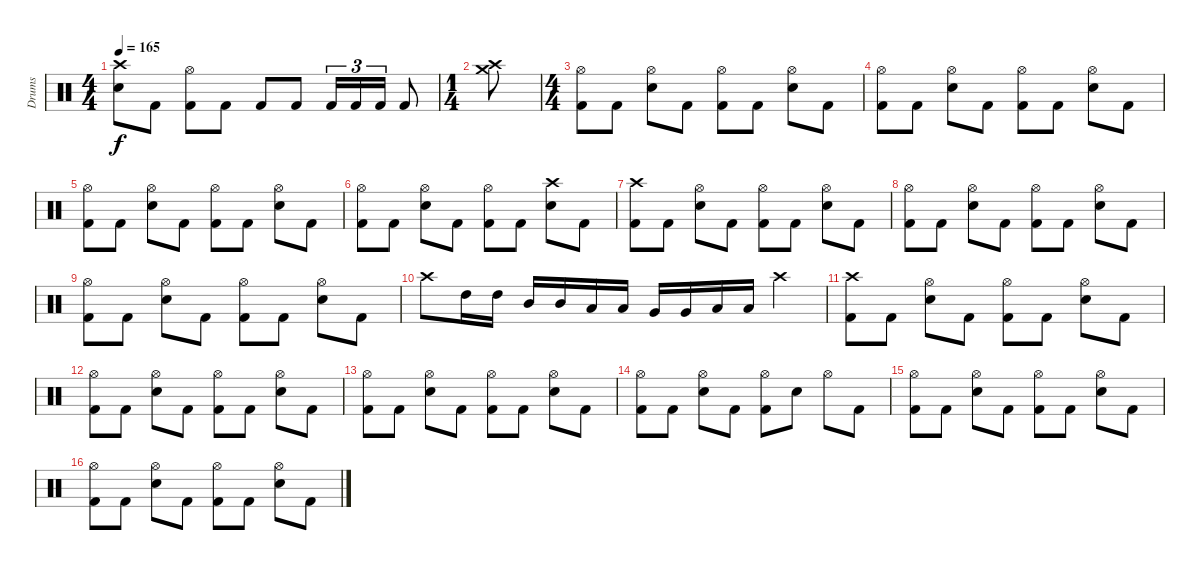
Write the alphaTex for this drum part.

\track ("Drums" "Drums") {instrument percussion}
\staff {score}
\articulation defaults
\ts (4 4)
\tempo 165
\clef neutral
\ks c
("Crash high (hit)" "Snare (hit) 2").8{dy f} "Kick (hit) 2".8 ("Hi-Hat (open)" "Kick (hit) 2").8 "Kick (hit) 2".8 "Kick (hit) 2".8 "Kick (hit) 2".8 "Kick (hit) 2".16{tu (3 2)} "Kick (hit) 2".16{tu (3 2)} "Kick (hit) 2".16{tu (3 2)} "Kick (hit) 2".8 |
\ts (1 4)
("Crash high (hit)" "Crash medium (hit)").8 |
\ts (4 4)
("Hi-Hat (open)" "Kick (hit) 2").8 "Kick (hit) 2".8 ("Hi-Hat (open)" "Snare (hit) 2").8 "Kick (hit) 2".8 ("Hi-Hat (open)" "Kick (hit) 2").8 "Kick (hit) 2".8 ("Hi-Hat (open)" "Snare (hit) 2").8 "Kick (hit) 2".8 |
("Hi-Hat (open)" "Kick (hit) 2").8 "Kick (hit) 2".8 ("Hi-Hat (open)" "Snare (hit) 2").8 "Kick (hit) 2".8 ("Hi-Hat (open)" "Kick (hit) 2").8 "Kick (hit) 2".8 ("Hi-Hat (open)" "Snare (hit) 2").8 "Kick (hit) 2".8 |
("Hi-Hat (open)" "Kick (hit) 2").8 "Kick (hit) 2".8 ("Hi-Hat (open)" "Snare (hit) 2").8 "Kick (hit) 2".8 ("Hi-Hat (open)" "Kick (hit) 2").8 "Kick (hit) 2".8 ("Hi-Hat (open)" "Snare (hit) 2").8 "Kick (hit) 2".8 |
("Hi-Hat (open)" "Kick (hit) 2").8 "Kick (hit) 2".8 ("Hi-Hat (open)" "Snare (hit) 2").8 "Kick (hit) 2".8 ("Hi-Hat (open)" "Kick (hit) 2").8 "Kick (hit) 2".8 ("Crash high (hit)" "Snare (hit) 2").8 "Kick (hit) 2".8 |
("Crash high (hit)" "Kick (hit) 2").8 "Kick (hit) 2".8 ("Hi-Hat (open)" "Snare (hit) 2").8 "Kick (hit) 2".8 ("Hi-Hat (open)" "Kick (hit) 2").8 "Kick (hit) 2".8 ("Hi-Hat (open)" "Snare (hit) 2").8 "Kick (hit) 2".8 |
("Hi-Hat (open)" "Kick (hit) 2").8 "Kick (hit) 2".8 ("Hi-Hat (open)" "Snare (hit) 2").8 "Kick (hit) 2".8 ("Hi-Hat (open)" "Kick (hit) 2").8 "Kick (hit) 2".8 ("Hi-Hat (open)" "Snare (hit) 2").8 "Kick (hit) 2".8 |
("Hi-Hat (open)" "Kick (hit) 2").8 "Kick (hit) 2".8 ("Hi-Hat (open)" "Snare (hit) 2").8 "Kick (hit) 2".8 ("Hi-Hat (open)" "Kick (hit) 2").8 "Kick (hit) 2".8 ("Hi-Hat (open)" "Snare (hit) 2").8 "Kick (hit) 2".8 |
"Crash high (hit)".8 "High Tom (hit)".16 "High Tom (hit)".16 "Mid Tom (hit)".16 "Mid Tom (hit)".16 "Low Tom (hit)".16 "Low Tom (hit)".16 "Very Low Tom (hit)".16 "Very Low Tom (hit)".16 "Low Floor Tom (hit)".16 "Low Floor Tom (hit)".16 "Crash high (hit)".4 |
("Crash high (hit)" "Kick (hit) 2").8 "Kick (hit) 2".8 ("Hi-Hat (open)" "Snare (hit) 2").8 "Kick (hit) 2".8 ("Hi-Hat (open)" "Kick (hit) 2").8 "Kick (hit) 2".8 ("Hi-Hat (open)" "Snare (hit) 2").8 "Kick (hit) 2".8 |
("Hi-Hat (open)" "Kick (hit) 2").8 "Kick (hit) 2".8 ("Hi-Hat (open)" "Snare (hit) 2").8 "Kick (hit) 2".8 ("Hi-Hat (open)" "Kick (hit) 2").8 "Kick (hit) 2".8 ("Hi-Hat (open)" "Snare (hit) 2").8 "Kick (hit) 2".8 |
("Hi-Hat (open)" "Kick (hit) 2").8 "Kick (hit) 2".8 ("Hi-Hat (open)" "Snare (hit) 2").8 "Kick (hit) 2".8 ("Hi-Hat (open)" "Kick (hit) 2").8 "Kick (hit) 2".8 ("Hi-Hat (open)" "Snare (hit) 2").8 "Kick (hit) 2".8 |
("Hi-Hat (open)" "Kick (hit) 2").8 "Kick (hit) 2".8 ("Hi-Hat (open)" "Snare (hit) 2").8 "Kick (hit) 2".8 ("Hi-Hat (open)" "Kick (hit) 2").8 "Snare (hit) 2".8 "Hi-Hat (open)".8 "Kick (hit) 2".8 |
("Hi-Hat (open)" "Kick (hit) 2").8 "Kick (hit) 2".8 ("Hi-Hat (open)" "Snare (hit) 2").8 "Kick (hit) 2".8 ("Hi-Hat (open)" "Kick (hit) 2").8 "Kick (hit) 2".8 ("Hi-Hat (open)" "Snare (hit) 2").8 "Kick (hit) 2".8 |
("Hi-Hat (open)" "Kick (hit) 2").8 "Kick (hit) 2".8 ("Hi-Hat (open)" "Snare (hit) 2").8 "Kick (hit) 2".8 ("Hi-Hat (open)" "Kick (hit) 2").8 "Kick (hit) 2".8 ("Hi-Hat (open)" "Snare (hit) 2").8 "Kick (hit) 2".8
